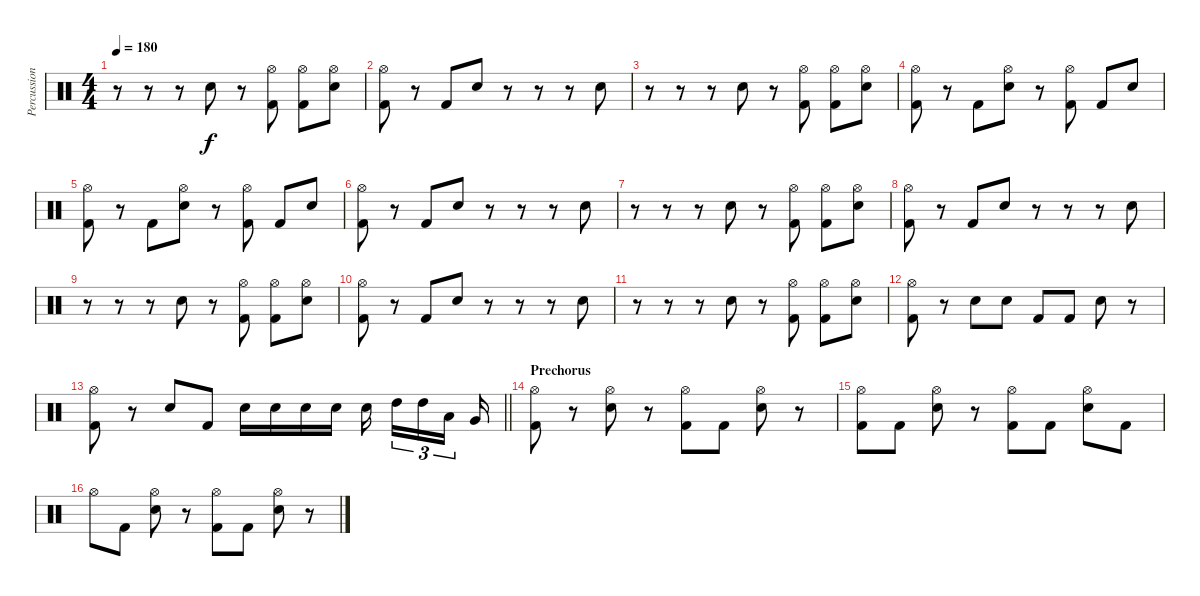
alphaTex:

\track ("Percussion" "Percussion") {instrument percussion}
\staff {score}
\articulation defaults
\ts (4 4)
\tempo 180
\clef neutral
\ks c
r.8{dy f} r.8 r.8 "Electric Snare (hit)".8 r.8 ("Hi-Hat (open)" "Kick (hit) 2").8 ("Hi-Hat (open)" "Kick (hit) 2").8 ("Hi-Hat (open)" "Electric Snare (hit)").8 |
("Hi-Hat (open)" "Kick (hit) 2").8 r.8 "Kick (hit) 2".8 "Electric Snare (hit)".8 r.8 r.8 r.8 "Electric Snare (hit)".8 |
r.8 r.8 r.8 "Electric Snare (hit)".8 r.8 ("Hi-Hat (open)" "Kick (hit) 2").8 ("Hi-Hat (open)" "Kick (hit) 2").8 ("Hi-Hat (open)" "Electric Snare (hit)").8 |
("Hi-Hat (open)" "Kick (hit) 2").8 r.8 "Kick (hit) 2".8 ("Hi-Hat (open)" "Electric Snare (hit)").8 r.8 ("Hi-Hat (open)" "Kick (hit) 2").8 "Kick (hit) 2".8 "Electric Snare (hit)".8 |
("Hi-Hat (open)" "Kick (hit) 2").8 r.8 "Kick (hit) 2".8 ("Hi-Hat (open)" "Electric Snare (hit)").8 r.8 ("Hi-Hat (open)" "Kick (hit) 2").8 "Kick (hit) 2".8 "Electric Snare (hit)".8 |
("Hi-Hat (open)" "Kick (hit) 2").8 r.8 "Kick (hit) 2".8 "Electric Snare (hit)".8 r.8 r.8 r.8 "Electric Snare (hit)".8 |
r.8 r.8 r.8 "Electric Snare (hit)".8 r.8 ("Hi-Hat (open)" "Kick (hit) 2").8 ("Hi-Hat (open)" "Kick (hit) 2").8 ("Hi-Hat (open)" "Electric Snare (hit)").8 |
("Hi-Hat (open)" "Kick (hit) 2").8 r.8 "Kick (hit) 2".8 "Electric Snare (hit)".8 r.8 r.8 r.8 "Electric Snare (hit)".8 |
r.8 r.8 r.8 "Electric Snare (hit)".8 r.8 ("Hi-Hat (open)" "Kick (hit) 2").8 ("Hi-Hat (open)" "Kick (hit) 2").8 ("Hi-Hat (open)" "Electric Snare (hit)").8 |
("Hi-Hat (open)" "Kick (hit) 2").8 r.8 "Kick (hit) 2".8 "Electric Snare (hit)".8 r.8 r.8 r.8 "Electric Snare (hit)".8 |
r.8 r.8 r.8 "Electric Snare (hit)".8 r.8 ("Hi-Hat (open)" "Kick (hit) 2").8 ("Hi-Hat (open)" "Kick (hit) 2").8 ("Hi-Hat (open)" "Electric Snare (hit)").8 |
("Hi-Hat (open)" "Kick (hit) 2").8 r.8 "Electric Snare (hit)".8 "Electric Snare (hit)".8 "Kick (hit) 2".8 "Kick (hit) 2".8 "Electric Snare (hit)".8 r.8 |
\barLineRight lightlight
("Hi-Hat (open)" "Kick (hit) 2").8 r.8 "Electric Snare (hit)".8 "Kick (hit) 2".8 "Electric Snare (hit)".16 "Electric Snare (hit)".16 "Electric Snare (hit)".16 "Electric Snare (hit)".16 "Electric Snare (hit)".16{beam splitsecondary} "High Tom (hit)".16{tu (3 2)} "High Tom (hit)".16{tu (3 2)} "Low Tom (hit)".16{tu (3 2) beam splitsecondary} "Very Low Tom (hit)".16 |
\section ("" "Prechorus")
("Hi-Hat (open)" "Kick (hit) 2").8 r.8 ("Hi-Hat (open)" "Electric Snare (hit)").8 r.8 ("Hi-Hat (open)" "Kick (hit) 2").8 "Kick (hit) 2".8 ("Hi-Hat (open)" "Electric Snare (hit)").8 r.8 |
("Hi-Hat (open)" "Kick (hit) 2").8 "Kick (hit) 2".8 ("Hi-Hat (open)" "Electric Snare (hit)").8 r.8 ("Hi-Hat (open)" "Kick (hit) 2").8 "Kick (hit) 2".8 ("Hi-Hat (open)" "Electric Snare (hit)").8 "Kick (hit) 2".8 |
"Hi-Hat (open)".8 "Kick (hit) 2".8 ("Hi-Hat (open)" "Electric Snare (hit)").8 r.8 ("Hi-Hat (open)" "Kick (hit) 2").8 "Kick (hit) 2".8 ("Hi-Hat (open)" "Electric Snare (hit)").8 r.8
